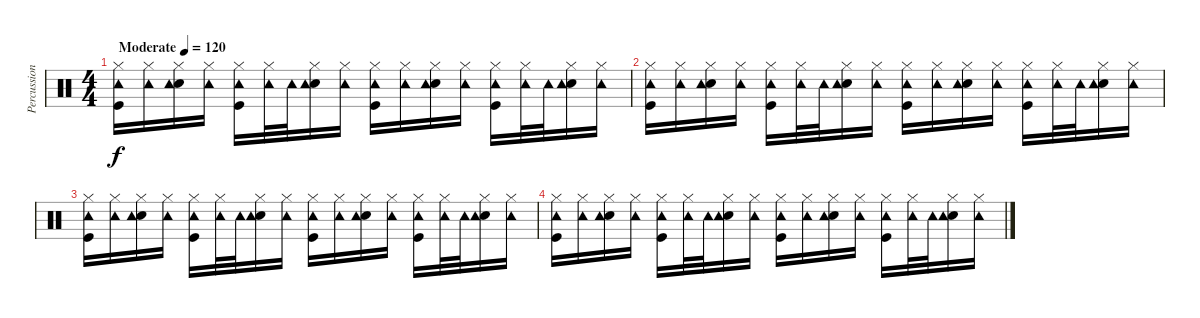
\track ("Percussion" "Percussion") {instrument percussion}
\staff {score}
\articulation defaults
\ts (4 4)
\tempo (120 "Moderate")
\clef neutral
\ks c
("Hi-Hat (closed)" "Kick (hit)" "Tambourine (hit)").16{dy f} ("Hi-Hat (closed)" "Tambourine (hit)").16 ("Hi-Hat (closed)" "Snare (hit) 2" "Tambourine (hit)").16 ("Hi-Hat (closed)" "Tambourine (hit)").16 ("Hi-Hat (closed)" "Kick (hit)" "Tambourine (hit)").16 ("Hi-Hat (closed)" "Tambourine (hit)").32 "Tambourine (hit)".32 ("Hi-Hat (closed)" "Snare (hit) 2" "Tambourine (hit)").16 ("Hi-Hat (closed)" "Tambourine (hit)").16 ("Hi-Hat (closed)" "Kick (hit)" "Tambourine (hit)").16 ("Hi-Hat (closed)" "Tambourine (hit)").16 ("Hi-Hat (closed)" "Snare (hit) 2" "Tambourine (hit)").16 ("Hi-Hat (closed)" "Tambourine (hit)").16 ("Hi-Hat (closed)" "Kick (hit)" "Tambourine (hit)").16 ("Hi-Hat (closed)" "Tambourine (hit)").32 "Tambourine (hit)".32 ("Hi-Hat (closed)" "Snare (hit) 2" "Tambourine (hit)").16 ("Hi-Hat (closed)" "Tambourine (hit)").16 |
("Hi-Hat (closed)" "Kick (hit)" "Tambourine (hit)").16 ("Hi-Hat (closed)" "Tambourine (hit)").16 ("Hi-Hat (closed)" "Snare (hit) 2" "Tambourine (hit)").16 ("Hi-Hat (closed)" "Tambourine (hit)").16 ("Hi-Hat (closed)" "Kick (hit)" "Tambourine (hit)").16 ("Hi-Hat (closed)" "Tambourine (hit)").32 "Tambourine (hit)".32 ("Hi-Hat (closed)" "Snare (hit) 2" "Tambourine (hit)").16 ("Hi-Hat (closed)" "Tambourine (hit)").16 ("Hi-Hat (closed)" "Kick (hit)" "Tambourine (hit)").16 ("Hi-Hat (closed)" "Tambourine (hit)").16 ("Hi-Hat (closed)" "Snare (hit) 2" "Tambourine (hit)").16 ("Hi-Hat (closed)" "Tambourine (hit)").16 ("Hi-Hat (closed)" "Kick (hit)" "Tambourine (hit)").16 ("Hi-Hat (closed)" "Tambourine (hit)").32 "Tambourine (hit)".32 ("Hi-Hat (closed)" "Snare (hit) 2" "Tambourine (hit)").16 ("Hi-Hat (closed)" "Tambourine (hit)").16 |
("Hi-Hat (closed)" "Kick (hit)" "Tambourine (hit)").16 ("Hi-Hat (closed)" "Tambourine (hit)").16 ("Hi-Hat (closed)" "Snare (hit) 2" "Tambourine (hit)").16 ("Hi-Hat (closed)" "Tambourine (hit)").16 ("Hi-Hat (closed)" "Kick (hit)" "Tambourine (hit)").16 ("Hi-Hat (closed)" "Tambourine (hit)").32 "Tambourine (hit)".32 ("Hi-Hat (closed)" "Snare (hit) 2" "Tambourine (hit)").16 ("Hi-Hat (closed)" "Tambourine (hit)").16 ("Hi-Hat (closed)" "Kick (hit)" "Tambourine (hit)").16 ("Hi-Hat (closed)" "Tambourine (hit)").16 ("Hi-Hat (closed)" "Snare (hit) 2" "Tambourine (hit)").16 ("Hi-Hat (closed)" "Tambourine (hit)").16 ("Hi-Hat (closed)" "Kick (hit)" "Tambourine (hit)").16 ("Hi-Hat (closed)" "Tambourine (hit)").32 "Tambourine (hit)".32 ("Hi-Hat (closed)" "Snare (hit) 2" "Tambourine (hit)").16 ("Hi-Hat (closed)" "Tambourine (hit)").16 |
("Hi-Hat (closed)" "Kick (hit)" "Tambourine (hit)").16 ("Hi-Hat (closed)" "Tambourine (hit)").16 ("Hi-Hat (closed)" "Snare (hit) 2" "Tambourine (hit)").16 ("Hi-Hat (closed)" "Tambourine (hit)").16 ("Hi-Hat (closed)" "Kick (hit)" "Tambourine (hit)").16 ("Hi-Hat (closed)" "Tambourine (hit)").32 "Tambourine (hit)".32 ("Hi-Hat (closed)" "Snare (hit) 2" "Tambourine (hit)").16 ("Hi-Hat (closed)" "Tambourine (hit)").16 ("Hi-Hat (closed)" "Kick (hit)" "Tambourine (hit)").16 ("Hi-Hat (closed)" "Tambourine (hit)").16 ("Hi-Hat (closed)" "Snare (hit) 2" "Tambourine (hit)").16 ("Hi-Hat (closed)" "Tambourine (hit)").16 ("Hi-Hat (closed)" "Kick (hit)" "Tambourine (hit)").16 ("Hi-Hat (closed)" "Tambourine (hit)").32 "Tambourine (hit)".32 ("Hi-Hat (closed)" "Snare (hit) 2" "Tambourine (hit)").16 ("Hi-Hat (closed)" "Tambourine (hit)").16
